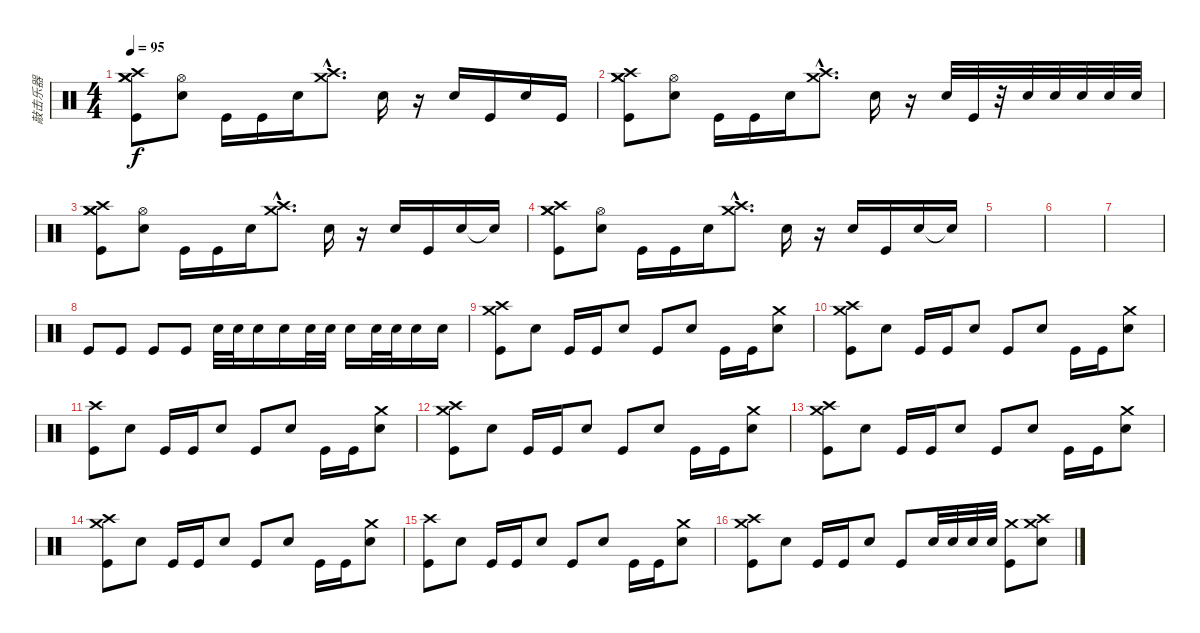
\track ("敲击乐器" "敲击乐器") {instrument percussion}
\staff {score}
\articulation defaults
\ts (4 4)
\tempo 95
\clef neutral
\ks c
("Crash medium (hit)" "Crash medium (hit)" "Crash high (hit)" "Kick (hit)").8{dy f} ("Hi-Hat (open)" "Electric Snare (hit)").8 "Kick (hit)".16 "Kick (hit)".16 "Electric Snare (hit)".16 ("Crash medium (hit)"{hac} "Crash high (hit)"{hac}).8{d} "Electric Snare (hit)".16 r.16 "Electric Snare (hit)".16 "Kick (hit)".16 "Electric Snare (hit)".16 "Kick (hit)".16 |
("Crash medium (hit)" "Crash medium (hit)" "Crash high (hit)" "Kick (hit)").8 ("Hi-Hat (open)" "Electric Snare (hit)").8 "Kick (hit)".16 "Kick (hit)".16 "Electric Snare (hit)".16 ("Crash medium (hit)"{hac} "Crash high (hit)"{hac}).8{d} "Electric Snare (hit)".16 r.16 "Electric Snare (hit)".32 "Kick (hit)".32 r.32 "Electric Snare (hit)".32 "Electric Snare (hit)".32 "Electric Snare (hit)".32 "Electric Snare (hit)".32 "Electric Snare (hit)".32 |
("Crash medium (hit)" "Crash medium (hit)" "Crash high (hit)" "Kick (hit)").8 ("Hi-Hat (open)" "Electric Snare (hit)").8 "Kick (hit)".16 "Kick (hit)".16 "Electric Snare (hit)".16 ("Crash medium (hit)"{hac} "Crash high (hit)"{hac}).8{d} "Electric Snare (hit)".16 r.16 "Electric Snare (hit)".16 "Kick (hit)".16 "Electric Snare (hit)".16 "Snare (hit)"{t}.16 |
("Crash medium (hit)" "Crash medium (hit)" "Crash high (hit)" "Kick (hit)").8 ("Hi-Hat (open)" "Electric Snare (hit)").8 "Kick (hit)".16 "Kick (hit)".16 "Electric Snare (hit)".16 ("Crash medium (hit)"{hac} "Crash high (hit)"{hac}).8{d} "Electric Snare (hit)".16 r.16 "Electric Snare (hit)".16 "Kick (hit)".16 "Electric Snare (hit)".16 "Snare (hit)"{t}.16 |
|
|
|
"Kick (hit)".8 "Kick (hit)".8 "Kick (hit)".8 "Kick (hit)".8 "Electric Snare (hit)".32 "Electric Snare (hit)".32 "Electric Snare (hit)".16 "Electric Snare (hit)".16 "Electric Snare (hit)".32 "Electric Snare (hit)".32 "Electric Snare (hit)".16 "Electric Snare (hit)".32 "Electric Snare (hit)".32 "Electric Snare (hit)".16 "Electric Snare (hit)".16 |
("Crash medium (hit)" "Crash high (hit)" "Kick (hit)").8 "Electric Snare (hit)".8 "Kick (hit)".16 "Kick (hit)".16 "Electric Snare (hit)".8 "Kick (hit)".8 "Electric Snare (hit)".8 "Kick (hit)".16 "Kick (hit)".16 ("Crash medium (hit)" "Electric Snare (hit)").8 |
("Crash medium (hit)" "Crash high (hit)" "Kick (hit)").8 "Electric Snare (hit)".8 "Kick (hit)".16 "Kick (hit)".16 "Electric Snare (hit)".8 "Kick (hit)".8 "Electric Snare (hit)".8 "Kick (hit)".16 "Kick (hit)".16 ("Crash medium (hit)" "Electric Snare (hit)").8 |
("Crash high (hit)" "Kick (hit)").8 "Electric Snare (hit)".8 "Kick (hit)".16 "Kick (hit)".16 "Electric Snare (hit)".8 "Kick (hit)".8 "Electric Snare (hit)".8 "Kick (hit)".16 "Kick (hit)".16 ("Crash medium (hit)" "Electric Snare (hit)").8 |
("Crash medium (hit)" "Crash high (hit)" "Kick (hit)").8 "Electric Snare (hit)".8 "Kick (hit)".16 "Kick (hit)".16 "Electric Snare (hit)".8 "Kick (hit)".8 "Electric Snare (hit)".8 "Kick (hit)".16 "Kick (hit)".16 ("Crash medium (hit)" "Electric Snare (hit)").8 |
("Crash medium (hit)" "Crash high (hit)" "Kick (hit)").8 "Electric Snare (hit)".8 "Kick (hit)".16 "Kick (hit)".16 "Electric Snare (hit)".8 "Kick (hit)".8 "Electric Snare (hit)".8 "Kick (hit)".16 "Kick (hit)".16 ("Crash medium (hit)" "Electric Snare (hit)").8 |
("Crash medium (hit)" "Crash high (hit)" "Kick (hit)").8 "Electric Snare (hit)".8 "Kick (hit)".16 "Kick (hit)".16 "Electric Snare (hit)".8 "Kick (hit)".8 "Electric Snare (hit)".8 "Kick (hit)".16 "Kick (hit)".16 ("Crash medium (hit)" "Electric Snare (hit)").8 |
("Crash high (hit)" "Kick (hit)").8 "Electric Snare (hit)".8 "Kick (hit)".16 "Kick (hit)".16 "Electric Snare (hit)".8 "Kick (hit)".8 "Electric Snare (hit)".8 "Kick (hit)".16 "Kick (hit)".16 ("Crash medium (hit)" "Electric Snare (hit)").8 |
("Crash medium (hit)" "Crash high (hit)" "Kick (hit)").8 "Electric Snare (hit)".8 "Kick (hit)".16 "Kick (hit)".16 "Electric Snare (hit)".8 "Kick (hit)".8 "Electric Snare (hit)".32 "Electric Snare (hit)".32 "Electric Snare (hit)".32 "Electric Snare (hit)".32 ("Crash medium (hit)" "Kick (hit)").8 ("Crash medium (hit)" "Crash high (hit)" "Electric Snare (hit)").8
